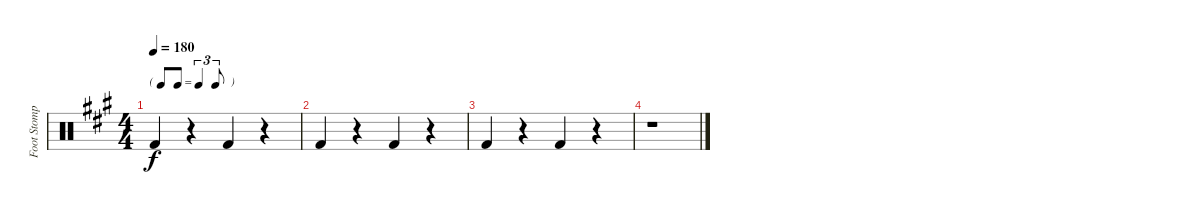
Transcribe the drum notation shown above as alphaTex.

\track ("Foot Stomp" "Foot Stomp") {instrument percussion}
\staff {score}
\articulation defaults
\ts (4 4)
\tf triplet8th
\tempo 180
\clef neutral
\ks a "Kick (hit) 2".4{dy f}
r.4 "Kick (hit) 2".4 r.4 |
"Kick (hit) 2".4 r.4 "Kick (hit) 2".4 r.4 |
"Kick (hit) 2".4 r.4 "Kick (hit) 2".4 r.4 |
r.1
